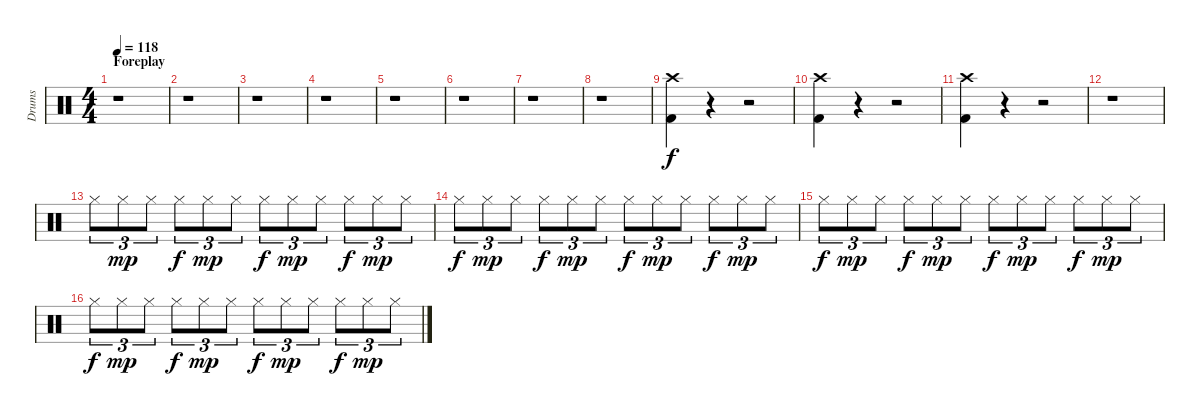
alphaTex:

\track ("Drums" "Drums") {instrument percussion}
\staff {score}
\articulation defaults
\ts (4 4)
\section ("" "Foreplay")
\tempo 118
\tempo 180
\tempo 118
\clef neutral
\ks c
r.1{dy f} |
r.1 |
r.1 |
r.1 |
r.1 |
r.1 |
r.1 |
r.1 |
("Crash high (hit)" "Kick (hit) 2").4 r.4{volume 0} r.2{volume 16} |
("Crash high (hit)" "Kick (hit) 2").4 r.4{volume 0} r.2{volume 16} |
("Crash high (hit)" "Kick (hit) 2").4 r.4 r.2 |
r.1 |
"Hi-Hat (closed)".8{tu (3 2)} "Hi-Hat (closed)".8{tu (3 2) dy mp} "Hi-Hat (closed)".8{tu (3 2)} "Hi-Hat (closed)".8{tu (3 2) dy f} "Hi-Hat (closed)".8{tu (3 2) dy mp} "Hi-Hat (closed)".8{tu (3 2)} "Hi-Hat (closed)".8{tu (3 2) dy f} "Hi-Hat (closed)".8{tu (3 2) dy mp} "Hi-Hat (closed)".8{tu (3 2)} "Hi-Hat (closed)".8{tu (3 2) dy f} "Hi-Hat (closed)".8{tu (3 2) dy mp} "Hi-Hat (closed)".8{tu (3 2)} |
"Hi-Hat (closed)".8{tu (3 2) dy f} "Hi-Hat (closed)".8{tu (3 2) dy mp} "Hi-Hat (closed)".8{tu (3 2)} "Hi-Hat (closed)".8{tu (3 2) dy f} "Hi-Hat (closed)".8{tu (3 2) dy mp} "Hi-Hat (closed)".8{tu (3 2)} "Hi-Hat (closed)".8{tu (3 2) dy f} "Hi-Hat (closed)".8{tu (3 2) dy mp} "Hi-Hat (closed)".8{tu (3 2)} "Hi-Hat (closed)".8{tu (3 2) dy f} "Hi-Hat (closed)".8{tu (3 2) dy mp} "Hi-Hat (closed)".8{tu (3 2)} |
"Hi-Hat (closed)".8{tu (3 2) dy f} "Hi-Hat (closed)".8{tu (3 2) dy mp} "Hi-Hat (closed)".8{tu (3 2)} "Hi-Hat (closed)".8{tu (3 2) dy f} "Hi-Hat (closed)".8{tu (3 2) dy mp} "Hi-Hat (closed)".8{tu (3 2)} "Hi-Hat (closed)".8{tu (3 2) dy f} "Hi-Hat (closed)".8{tu (3 2) dy mp} "Hi-Hat (closed)".8{tu (3 2)} "Hi-Hat (closed)".8{tu (3 2) dy f} "Hi-Hat (closed)".8{tu (3 2) dy mp} "Hi-Hat (closed)".8{tu (3 2)} |
"Hi-Hat (closed)".8{tu (3 2) dy f} "Hi-Hat (closed)".8{tu (3 2) dy mp} "Hi-Hat (closed)".8{tu (3 2)} "Hi-Hat (closed)".8{tu (3 2) dy f} "Hi-Hat (closed)".8{tu (3 2) dy mp} "Hi-Hat (closed)".8{tu (3 2)} "Hi-Hat (closed)".8{tu (3 2) dy f} "Hi-Hat (closed)".8{tu (3 2) dy mp} "Hi-Hat (closed)".8{tu (3 2)} "Hi-Hat (closed)".8{tu (3 2) dy f} "Hi-Hat (closed)".8{tu (3 2) dy mp} "Hi-Hat (closed)".8{tu (3 2)}
